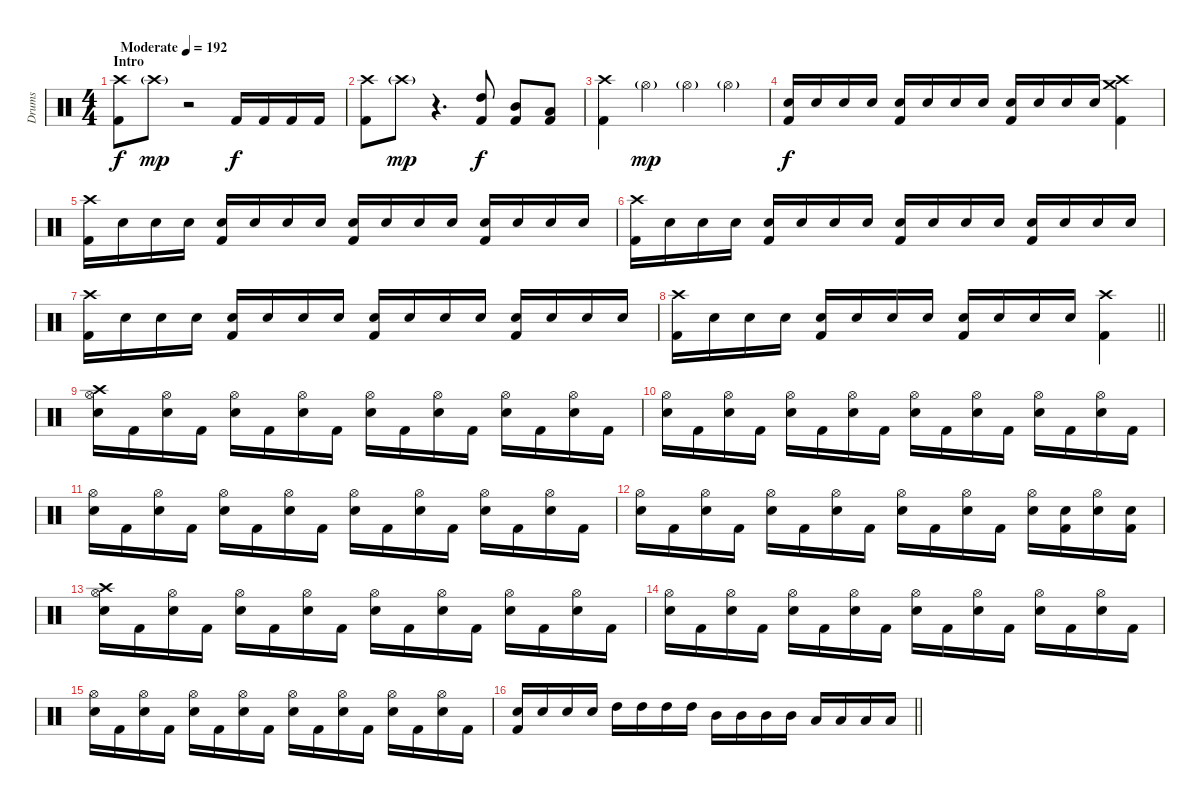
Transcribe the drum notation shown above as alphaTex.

\track ("Drums" "Drums") {instrument percussion}
\staff {score}
\articulation defaults
\ts (4 4)
\section ("" "Intro")
\tempo (192 "Moderate")
\clef neutral
\ks c
("Crash high (hit)" "Kick (hit) 2").8{dy f} "Crash high (hit)"{g}.8{dy mp} r.2 "Kick (hit) 2".16{dy f} "Kick (hit) 2".16 "Kick (hit) 2".16 "Kick (hit) 2".16 |
("Crash high (hit)" "Kick (hit) 2").8 "Crash high (hit)"{g}.8{dy mp} r.4{d} ("High Tom (hit)" "Kick (hit) 2").8{dy f} ("Mid Tom (hit)" "Kick (hit) 2").8 ("Low Tom (hit)" "Kick (hit) 2").8 |
("Crash high (hit)" "Kick (hit) 2").4 "Hi-Hat (open)"{g}.4{dy mp} "Hi-Hat (open)"{g}.4 "Hi-Hat (open)"{g}.4 |
("Electric Snare (hit)" "Kick (hit) 2").16{dy f} "Electric Snare (hit)".16 "Electric Snare (hit)".16 "Electric Snare (hit)".16 ("Electric Snare (hit)" "Kick (hit) 2").16 "Electric Snare (hit)".16 "Electric Snare (hit)".16 "Electric Snare (hit)".16 ("Electric Snare (hit)" "Kick (hit) 2").16 "Electric Snare (hit)".16 "Electric Snare (hit)".16 "Electric Snare (hit)".16 ("Crash medium (hit)" "Crash high (hit)" "Kick (hit) 2").4 |
("Crash high (hit)" "Kick (hit) 2").16 "Electric Snare (hit)".16{volume 10} "Electric Snare (hit)".16 "Electric Snare (hit)".16 ("Electric Snare (hit)" "Kick (hit) 2").16 "Electric Snare (hit)".16 "Electric Snare (hit)".16 "Electric Snare (hit)".16 ("Electric Snare (hit)" "Kick (hit) 2").16 "Electric Snare (hit)".16 "Electric Snare (hit)".16 "Electric Snare (hit)".16 ("Electric Snare (hit)" "Kick (hit) 2").16 "Electric Snare (hit)".16 "Electric Snare (hit)".16 "Electric Snare (hit)".16 |
("Crash high (hit)" "Kick (hit) 2").16{volume 13} "Electric Snare (hit)".16{volume 10} "Electric Snare (hit)".16 "Electric Snare (hit)".16 ("Electric Snare (hit)" "Kick (hit) 2").16 "Electric Snare (hit)".16 "Electric Snare (hit)".16 "Electric Snare (hit)".16 ("Electric Snare (hit)" "Kick (hit) 2").16 "Electric Snare (hit)".16 "Electric Snare (hit)".16 "Electric Snare (hit)".16 ("Electric Snare (hit)" "Kick (hit) 2").16 "Electric Snare (hit)".16 "Electric Snare (hit)".16 "Electric Snare (hit)".16 |
("Crash high (hit)" "Kick (hit) 2").16{volume 13} "Electric Snare (hit)".16{volume 10} "Electric Snare (hit)".16 "Electric Snare (hit)".16 ("Electric Snare (hit)" "Kick (hit) 2").16 "Electric Snare (hit)".16 "Electric Snare (hit)".16 "Electric Snare (hit)".16 ("Electric Snare (hit)" "Kick (hit) 2").16 "Electric Snare (hit)".16 "Electric Snare (hit)".16 "Electric Snare (hit)".16 ("Electric Snare (hit)" "Kick (hit) 2").16 "Electric Snare (hit)".16 "Electric Snare (hit)".16 "Electric Snare (hit)".16 |
\barLineRight lightlight
("Crash high (hit)" "Kick (hit) 2").16{volume 13} "Electric Snare (hit)".16{volume 10} "Electric Snare (hit)".16 "Electric Snare (hit)".16 ("Electric Snare (hit)" "Kick (hit) 2").16 "Electric Snare (hit)".16 "Electric Snare (hit)".16 "Electric Snare (hit)".16 ("Electric Snare (hit)" "Kick (hit) 2").16 "Electric Snare (hit)".16 "Electric Snare (hit)".16 "Electric Snare (hit)".16 ("Crash high (hit)" "Kick (hit) 2").4{volume 13} |
("Crash high (hit)" "Hi-Hat (open)" "Electric Snare (hit)").16 "Kick (hit) 2".16 ("Hi-Hat (open)" "Electric Snare (hit)").16 "Kick (hit) 2".16 ("Hi-Hat (open)" "Electric Snare (hit)").16 "Kick (hit) 2".16 ("Hi-Hat (open)" "Electric Snare (hit)").16 "Kick (hit) 2".16 ("Hi-Hat (open)" "Electric Snare (hit)").16 "Kick (hit) 2".16 ("Hi-Hat (open)" "Electric Snare (hit)").16 "Kick (hit) 2".16 ("Hi-Hat (open)" "Electric Snare (hit)").16 "Kick (hit) 2".16 ("Hi-Hat (open)" "Electric Snare (hit)").16 "Kick (hit) 2".16 |
("Hi-Hat (open)" "Electric Snare (hit)").16 "Kick (hit) 2".16 ("Hi-Hat (open)" "Electric Snare (hit)").16 "Kick (hit) 2".16 ("Hi-Hat (open)" "Electric Snare (hit)").16 "Kick (hit) 2".16 ("Hi-Hat (open)" "Electric Snare (hit)").16 "Kick (hit) 2".16 ("Hi-Hat (open)" "Electric Snare (hit)").16 "Kick (hit) 2".16 ("Hi-Hat (open)" "Electric Snare (hit)").16 "Kick (hit) 2".16 ("Hi-Hat (open)" "Electric Snare (hit)").16 "Kick (hit) 2".16 ("Hi-Hat (open)" "Electric Snare (hit)").16 "Kick (hit) 2".16 |
("Hi-Hat (open)" "Electric Snare (hit)").16 "Kick (hit) 2".16 ("Hi-Hat (open)" "Electric Snare (hit)").16 "Kick (hit) 2".16 ("Hi-Hat (open)" "Electric Snare (hit)").16 "Kick (hit) 2".16 ("Hi-Hat (open)" "Electric Snare (hit)").16 "Kick (hit) 2".16 ("Hi-Hat (open)" "Electric Snare (hit)").16 "Kick (hit) 2".16 ("Hi-Hat (open)" "Electric Snare (hit)").16 "Kick (hit) 2".16 ("Hi-Hat (open)" "Electric Snare (hit)").16 "Kick (hit) 2".16 ("Hi-Hat (open)" "Electric Snare (hit)").16 "Kick (hit) 2".16 |
("Hi-Hat (open)" "Electric Snare (hit)").16 "Kick (hit) 2".16 ("Hi-Hat (open)" "Electric Snare (hit)").16 "Kick (hit) 2".16 ("Hi-Hat (open)" "Electric Snare (hit)").16 "Kick (hit) 2".16 ("Hi-Hat (open)" "Electric Snare (hit)").16 "Kick (hit) 2".16 ("Hi-Hat (open)" "Electric Snare (hit)").16 "Kick (hit) 2".16 ("Hi-Hat (open)" "Electric Snare (hit)").16 "Kick (hit) 2".16 ("Hi-Hat (open)" "Electric Snare (hit)").16 ("Electric Snare (hit)" "Kick (hit) 2").16 ("Hi-Hat (open)" "Electric Snare (hit)").16 ("Electric Snare (hit)" "Kick (hit) 2").16 |
("Crash high (hit)" "Hi-Hat (open)" "Electric Snare (hit)").16 "Kick (hit) 2".16 ("Hi-Hat (open)" "Electric Snare (hit)").16 "Kick (hit) 2".16 ("Hi-Hat (open)" "Electric Snare (hit)").16 "Kick (hit) 2".16 ("Hi-Hat (open)" "Electric Snare (hit)").16 "Kick (hit) 2".16 ("Hi-Hat (open)" "Electric Snare (hit)").16 "Kick (hit) 2".16 ("Hi-Hat (open)" "Electric Snare (hit)").16 "Kick (hit) 2".16 ("Hi-Hat (open)" "Electric Snare (hit)").16 "Kick (hit) 2".16 ("Hi-Hat (open)" "Electric Snare (hit)").16 "Kick (hit) 2".16 |
("Hi-Hat (open)" "Electric Snare (hit)").16 "Kick (hit) 2".16 ("Hi-Hat (open)" "Electric Snare (hit)").16 "Kick (hit) 2".16 ("Hi-Hat (open)" "Electric Snare (hit)").16 "Kick (hit) 2".16 ("Hi-Hat (open)" "Electric Snare (hit)").16 "Kick (hit) 2".16 ("Hi-Hat (open)" "Electric Snare (hit)").16 "Kick (hit) 2".16 ("Hi-Hat (open)" "Electric Snare (hit)").16 "Kick (hit) 2".16 ("Hi-Hat (open)" "Electric Snare (hit)").16 "Kick (hit) 2".16 ("Hi-Hat (open)" "Electric Snare (hit)").16 "Kick (hit) 2".16 |
("Hi-Hat (open)" "Electric Snare (hit)").16 "Kick (hit) 2".16 ("Hi-Hat (open)" "Electric Snare (hit)").16 "Kick (hit) 2".16 ("Hi-Hat (open)" "Electric Snare (hit)").16 "Kick (hit) 2".16 ("Hi-Hat (open)" "Electric Snare (hit)").16 "Kick (hit) 2".16 ("Hi-Hat (open)" "Electric Snare (hit)").16 "Kick (hit) 2".16 ("Hi-Hat (open)" "Electric Snare (hit)").16 "Kick (hit) 2".16 ("Hi-Hat (open)" "Electric Snare (hit)").16 "Kick (hit) 2".16 ("Hi-Hat (open)" "Electric Snare (hit)").16 "Kick (hit) 2".16 |
\barLineRight lightlight
("Electric Snare (hit)" "Kick (hit) 2").16 "Electric Snare (hit)".16 "Electric Snare (hit)".16 "Electric Snare (hit)".16 "High Tom (hit)".16 "High Tom (hit)".16 "High Tom (hit)".16 "High Tom (hit)".16 "Mid Tom (hit)".16 "Mid Tom (hit)".16 "Mid Tom (hit)".16 "Mid Tom (hit)".16 "Low Tom (hit)".16 "Low Tom (hit)".16 "Low Tom (hit)".16 "Low Tom (hit)".16
